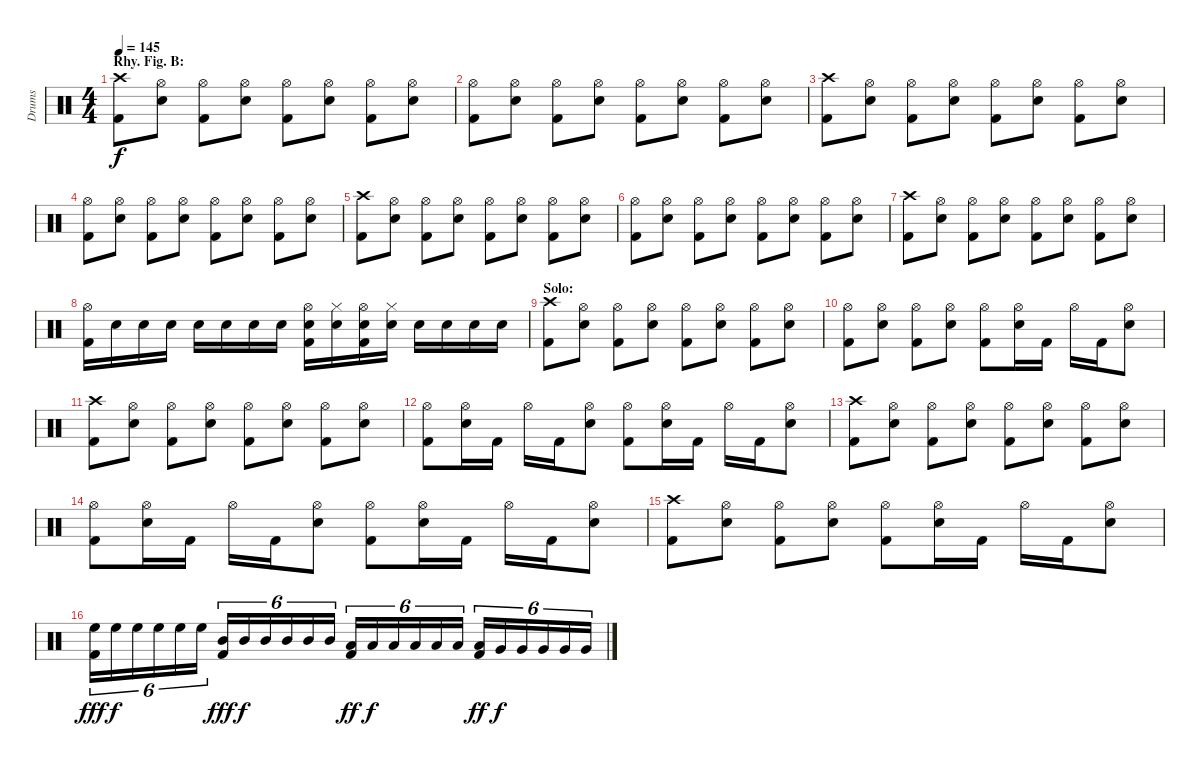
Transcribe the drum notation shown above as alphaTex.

\track ("Drums" "Drums") {instrument percussion}
\staff {score}
\articulation defaults
\ts (4 4)
\section ("" "Rhy. Fig. B:")
\tempo 145
\clef neutral
\ks c
("Crash high (hit)" "Kick (hit) 2").8{dy f} ("Hi-Hat (open)" "Electric Snare (hit)").8 ("Hi-Hat (open)" "Kick (hit) 2").8 ("Hi-Hat (open)" "Electric Snare (hit)").8 ("Hi-Hat (open)" "Kick (hit) 2").8 ("Hi-Hat (open)" "Electric Snare (hit)").8 ("Hi-Hat (open)" "Kick (hit) 2").8 ("Hi-Hat (open)" "Electric Snare (hit)").8 |
("Hi-Hat (open)" "Kick (hit) 2").8 ("Hi-Hat (open)" "Electric Snare (hit)").8 ("Hi-Hat (open)" "Kick (hit) 2").8 ("Hi-Hat (open)" "Electric Snare (hit)").8 ("Hi-Hat (open)" "Kick (hit) 2").8 ("Hi-Hat (open)" "Electric Snare (hit)").8 ("Hi-Hat (open)" "Kick (hit) 2").8 ("Hi-Hat (open)" "Electric Snare (hit)").8 |
("Crash high (hit)" "Kick (hit) 2").8 ("Hi-Hat (open)" "Electric Snare (hit)").8 ("Hi-Hat (open)" "Kick (hit) 2").8 ("Hi-Hat (open)" "Electric Snare (hit)").8 ("Hi-Hat (open)" "Kick (hit) 2").8 ("Hi-Hat (open)" "Electric Snare (hit)").8 ("Hi-Hat (open)" "Kick (hit) 2").8 ("Hi-Hat (open)" "Electric Snare (hit)").8 |
("Hi-Hat (open)" "Kick (hit) 2").8 ("Hi-Hat (open)" "Electric Snare (hit)").8 ("Hi-Hat (open)" "Kick (hit) 2").8 ("Hi-Hat (open)" "Electric Snare (hit)").8 ("Hi-Hat (open)" "Kick (hit) 2").8 ("Hi-Hat (open)" "Electric Snare (hit)").8 ("Hi-Hat (open)" "Kick (hit) 2").8 ("Hi-Hat (open)" "Electric Snare (hit)").8 |
("Crash high (hit)" "Kick (hit) 2").8 ("Hi-Hat (open)" "Electric Snare (hit)").8 ("Hi-Hat (open)" "Kick (hit) 2").8 ("Hi-Hat (open)" "Electric Snare (hit)").8 ("Hi-Hat (open)" "Kick (hit) 2").8 ("Hi-Hat (open)" "Electric Snare (hit)").8 ("Hi-Hat (open)" "Kick (hit) 2").8 ("Hi-Hat (open)" "Electric Snare (hit)").8 |
("Hi-Hat (open)" "Kick (hit) 2").8 ("Hi-Hat (open)" "Electric Snare (hit)").8 ("Hi-Hat (open)" "Kick (hit) 2").8 ("Hi-Hat (open)" "Electric Snare (hit)").8 ("Hi-Hat (open)" "Kick (hit) 2").8 ("Hi-Hat (open)" "Electric Snare (hit)").8 ("Hi-Hat (open)" "Kick (hit) 2").8 ("Hi-Hat (open)" "Electric Snare (hit)").8 |
("Crash high (hit)" "Kick (hit) 2").8 ("Hi-Hat (open)" "Electric Snare (hit)").8 ("Hi-Hat (open)" "Kick (hit) 2").8 ("Hi-Hat (open)" "Electric Snare (hit)").8 ("Hi-Hat (open)" "Kick (hit) 2").8 ("Hi-Hat (open)" "Electric Snare (hit)").8 ("Hi-Hat (open)" "Kick (hit) 2").8 ("Hi-Hat (open)" "Electric Snare (hit)").8 |
("Hi-Hat (open)" "Kick (hit) 2").16 "Electric Snare (hit)".16 "Electric Snare (hit)".16 "Electric Snare (hit)".16 "Electric Snare (hit)".16 "Electric Snare (hit)".16 "Electric Snare (hit)".16 "Electric Snare (hit)".16 ("Hi-Hat (open)" "Electric Snare (hit)" "Kick (hit) 2").16 ("Hi-Hat (closed)" "Electric Snare (hit)").16 ("Hi-Hat (open)" "Electric Snare (hit)" "Kick (hit) 2").16 ("Hi-Hat (closed)" "Electric Snare (hit)").16 "Electric Snare (hit)".16 "Electric Snare (hit)".16 "Electric Snare (hit)".16 "Electric Snare (hit)".16 |
\section ("" "Solo:")
("Crash high (hit)" "Kick (hit) 2").8 ("Hi-Hat (open)" "Electric Snare (hit)").8 ("Hi-Hat (open)" "Kick (hit) 2").8 ("Hi-Hat (open)" "Electric Snare (hit)").8 ("Hi-Hat (open)" "Kick (hit) 2").8 ("Hi-Hat (open)" "Electric Snare (hit)").8 ("Hi-Hat (open)" "Kick (hit) 2").8 ("Hi-Hat (open)" "Electric Snare (hit)").8 |
("Hi-Hat (open)" "Kick (hit) 2").8 ("Hi-Hat (open)" "Electric Snare (hit)").8 ("Hi-Hat (open)" "Kick (hit) 2").8 ("Hi-Hat (open)" "Electric Snare (hit)").8 ("Hi-Hat (open)" "Kick (hit) 2").8 ("Hi-Hat (open)" "Electric Snare (hit)").16 "Kick (hit) 2".16 "Hi-Hat (open)".16 "Kick (hit) 2".16 ("Hi-Hat (open)" "Electric Snare (hit)").8 |
("Crash high (hit)" "Kick (hit) 2").8 ("Hi-Hat (open)" "Electric Snare (hit)").8 ("Hi-Hat (open)" "Kick (hit) 2").8 ("Hi-Hat (open)" "Electric Snare (hit)").8 ("Hi-Hat (open)" "Kick (hit) 2").8 ("Hi-Hat (open)" "Electric Snare (hit)").8 ("Hi-Hat (open)" "Kick (hit) 2").8 ("Hi-Hat (open)" "Electric Snare (hit)").8 |
("Hi-Hat (open)" "Kick (hit) 2").8 ("Hi-Hat (open)" "Electric Snare (hit)").16 "Kick (hit) 2".16 "Hi-Hat (open)".16 "Kick (hit) 2".16 ("Hi-Hat (open)" "Electric Snare (hit)").8 ("Hi-Hat (open)" "Kick (hit) 2").8 ("Hi-Hat (open)" "Electric Snare (hit)").16 "Kick (hit) 2".16 "Hi-Hat (open)".16 "Kick (hit) 2".16 ("Hi-Hat (open)" "Electric Snare (hit)").8 |
("Crash high (hit)" "Kick (hit) 2").8 ("Hi-Hat (open)" "Electric Snare (hit)").8 ("Hi-Hat (open)" "Kick (hit) 2").8 ("Hi-Hat (open)" "Electric Snare (hit)").8 ("Hi-Hat (open)" "Kick (hit) 2").8 ("Hi-Hat (open)" "Electric Snare (hit)").8 ("Hi-Hat (open)" "Kick (hit) 2").8 ("Hi-Hat (open)" "Electric Snare (hit)").8 |
("Hi-Hat (open)" "Kick (hit) 2").8 ("Hi-Hat (open)" "Electric Snare (hit)").16 "Kick (hit) 2".16 "Hi-Hat (open)".16 "Kick (hit) 2".16 ("Hi-Hat (open)" "Electric Snare (hit)").8 ("Hi-Hat (open)" "Kick (hit) 2").8 ("Hi-Hat (open)" "Electric Snare (hit)").16 "Kick (hit) 2".16 "Hi-Hat (open)".16 "Kick (hit) 2".16 ("Hi-Hat (open)" "Electric Snare (hit)").8 |
("Crash high (hit)" "Kick (hit) 2").8 ("Hi-Hat (open)" "Electric Snare (hit)").8 ("Hi-Hat (open)" "Kick (hit) 2").8 ("Hi-Hat (open)" "Electric Snare (hit)").8 ("Hi-Hat (open)" "Kick (hit) 2").8 ("Hi-Hat (open)" "Electric Snare (hit)").16 "Kick (hit) 2".16 "Hi-Hat (open)".16 "Kick (hit) 2".16 ("Hi-Hat (open)" "Electric Snare (hit)").8 |
("High Floor Tom (hit)" "Kick (hit) 2").16{tu (6 4) dy fff} "High Floor Tom (hit)".16{tu (6 4) dy f} "High Floor Tom (hit)".16{tu (6 4)} "High Floor Tom (hit)".16{tu (6 4)} "High Floor Tom (hit)".16{tu (6 4)} "High Floor Tom (hit)".16{tu (6 4)} ("Mid Tom (hit)" "Kick (hit) 2").16{tu (6 4) dy fff} "Mid Tom (hit)".16{tu (6 4) dy f} "Mid Tom (hit)".16{tu (6 4)} "Mid Tom (hit)".16{tu (6 4)} "Mid Tom (hit)".16{tu (6 4)} "Mid Tom (hit)".16{tu (6 4)} ("Low Tom (hit)" "Kick (hit) 2").16{tu (6 4) dy ff} "Low Tom (hit)".16{tu (6 4) dy f} "Low Tom (hit)".16{tu (6 4)} "Low Tom (hit)".16{tu (6 4)} "Low Tom (hit)".16{tu (6 4)} "Low Tom (hit)".16{tu (6 4)} ("Low Tom (hit)" "Kick (hit) 2").16{tu (6 4) dy ff} "Very Low Tom (hit)".16{tu (6 4) dy f} "Very Low Tom (hit)".16{tu (6 4)} "Very Low Tom (hit)".16{tu (6 4)} "Very Low Tom (hit)".16{tu (6 4)} "Very Low Tom (hit)".16{tu (6 4)}
